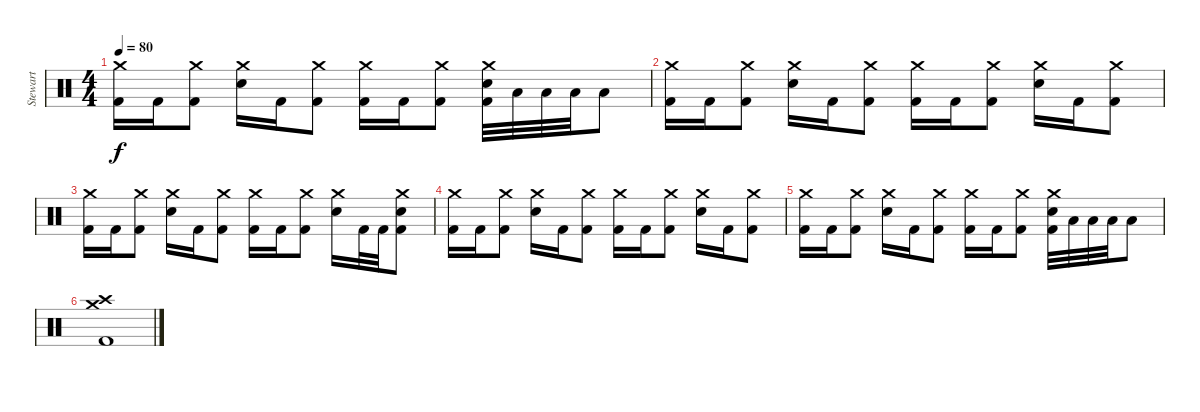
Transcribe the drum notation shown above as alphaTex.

\track ("Stewart" "Stewart") {instrument percussion}
\staff {score}
\articulation defaults
\ts (4 4)
\tempo 80
\clef neutral
\ks c
("Crash medium (hit)" "Kick (hit) 2").16{dy f} "Kick (hit) 2".16 ("Crash medium (hit)" "Kick (hit) 2").8 ("Crash medium (hit)" "Snare (hit) 2").16 "Kick (hit) 2".16 ("Crash medium (hit)" "Kick (hit) 2").8 ("Crash medium (hit)" "Kick (hit) 2").16 "Kick (hit) 2".16 ("Crash medium (hit)" "Kick (hit) 2").8 ("Crash medium (hit)" "Snare (hit) 2" "Kick (hit) 2").32 "Low Tom (hit)".32 "Low Tom (hit)".32 "Low Tom (hit)".32 "Low Tom (hit)".8 |
("Crash medium (hit)" "Kick (hit) 2").16 "Kick (hit) 2".16 ("Crash medium (hit)" "Kick (hit) 2").8 ("Crash medium (hit)" "Snare (hit) 2").16 "Kick (hit) 2".16 ("Crash medium (hit)" "Kick (hit) 2").8 ("Crash medium (hit)" "Kick (hit) 2").16 "Kick (hit) 2".16 ("Crash medium (hit)" "Kick (hit) 2").8 ("Crash medium (hit)" "Snare (hit) 2").16 "Kick (hit) 2".16 ("Crash medium (hit)" "Kick (hit) 2").8 |
("Crash medium (hit)" "Kick (hit) 2").16 "Kick (hit) 2".16 ("Crash medium (hit)" "Kick (hit) 2").8 ("Crash medium (hit)" "Snare (hit) 2").16 "Kick (hit) 2".16 ("Crash medium (hit)" "Kick (hit) 2").8 ("Crash medium (hit)" "Kick (hit) 2").16 "Kick (hit) 2".16 ("Crash medium (hit)" "Kick (hit) 2").8 ("Crash medium (hit)" "Snare (hit) 2").16 "Kick (hit) 2".32 "Kick (hit) 2".32 ("Crash medium (hit)" "Snare (hit) 2" "Kick (hit) 2").8 |
("Crash medium (hit)" "Kick (hit) 2").16 "Kick (hit) 2".16 ("Crash medium (hit)" "Kick (hit) 2").8 ("Crash medium (hit)" "Snare (hit) 2").16 "Kick (hit) 2".16 ("Crash medium (hit)" "Kick (hit) 2").8 ("Crash medium (hit)" "Kick (hit) 2").16 "Kick (hit) 2".16 ("Crash medium (hit)" "Kick (hit) 2").8 ("Crash medium (hit)" "Snare (hit) 2").16 "Kick (hit) 2".16 ("Crash medium (hit)" "Kick (hit) 2").8 |
("Crash medium (hit)" "Kick (hit) 2").16 "Kick (hit) 2".16 ("Crash medium (hit)" "Kick (hit) 2").8 ("Crash medium (hit)" "Snare (hit) 2").16 "Kick (hit) 2".16 ("Crash medium (hit)" "Kick (hit) 2").8 ("Crash medium (hit)" "Kick (hit) 2").16 "Kick (hit) 2".16 ("Crash medium (hit)" "Kick (hit) 2").8 ("Crash medium (hit)" "Snare (hit) 2" "Kick (hit) 2").32 "Low Tom (hit)".32 "Low Tom (hit)".32 "Low Tom (hit)".32 "Low Tom (hit)".8 |
("Crash medium (hit)" "Crash high (hit)" "Kick (hit) 2").1
